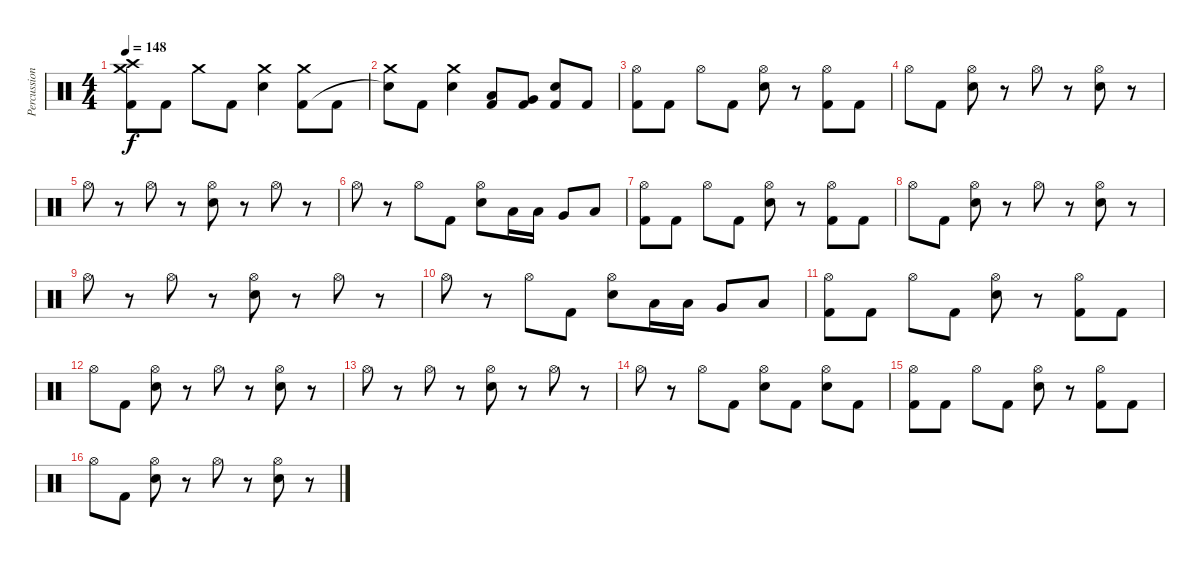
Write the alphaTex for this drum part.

\track ("Percussion" "Percussion") {instrument percussion}
\staff {score}
\articulation defaults
\ts (4 4)
\tempo 148
\clef neutral
\ks c
("Crash medium (hit)" "Crash high (hit)" "Kick (hit) 2").8{dy f} "Kick (hit) 2".8 "Crash medium (hit)".8 "Kick (hit) 2".8 ("Crash medium (hit)" "Electric Snare (hit)").4 ("Crash medium (hit)" "Kick (hit) 2").8 "Kick (hit) 2".8 |
("Crash medium (hit)" "Snare (hit)"{t}).8 "Kick (hit) 2".8 ("Crash medium (hit)" "Electric Snare (hit)").4 ("Low Tom (hit)" "Kick (hit) 2").8 ("Very Low Tom (hit)" "Kick (hit) 2").8 ("Electric Snare (hit)" "Kick (hit) 2").8 "Kick (hit) 2".8 |
("Hi-Hat (open)" "Kick (hit) 2").8 "Kick (hit) 2".8 "Hi-Hat (open)".8 "Kick (hit) 2".8 ("Hi-Hat (open)" "Electric Snare (hit)").8 r.8 ("Hi-Hat (open)" "Kick (hit) 2").8 "Kick (hit) 2".8 |
"Hi-Hat (open)".8 "Kick (hit) 2".8 ("Hi-Hat (open)" "Electric Snare (hit)").8 r.8 "Hi-Hat (open)".8 r.8 ("Hi-Hat (open)" "Electric Snare (hit)").8 r.8 |
"Hi-Hat (open)".8 r.8 "Hi-Hat (open)".8 r.8 ("Hi-Hat (open)" "Electric Snare (hit)").8 r.8 "Hi-Hat (open)".8 r.8 |
"Hi-Hat (open)".8 r.8 "Hi-Hat (open)".8 "Kick (hit) 2".8 ("Hi-Hat (open)" "Electric Snare (hit)").8 "Low Tom (hit)".16 "Low Tom (hit)".16 "Very Low Tom (hit)".8 "Low Floor Tom (hit)".8 |
("Hi-Hat (open)" "Kick (hit) 2").8 "Kick (hit) 2".8 "Hi-Hat (open)".8 "Kick (hit) 2".8 ("Hi-Hat (open)" "Electric Snare (hit)").8 r.8 ("Hi-Hat (open)" "Kick (hit) 2").8 "Kick (hit) 2".8 |
"Hi-Hat (open)".8 "Kick (hit) 2".8 ("Hi-Hat (open)" "Electric Snare (hit)").8 r.8 "Hi-Hat (open)".8 r.8 ("Hi-Hat (open)" "Electric Snare (hit)").8 r.8 |
"Hi-Hat (open)".8 r.8 "Hi-Hat (open)".8 r.8 ("Hi-Hat (open)" "Electric Snare (hit)").8 r.8 "Hi-Hat (open)".8 r.8 |
"Hi-Hat (open)".8 r.8 "Hi-Hat (open)".8 "Kick (hit) 2".8 ("Hi-Hat (open)" "Electric Snare (hit)").8 "Low Tom (hit)".16 "Low Tom (hit)".16 "Very Low Tom (hit)".8 "Low Floor Tom (hit)".8 |
("Hi-Hat (open)" "Kick (hit) 2").8 "Kick (hit) 2".8 "Hi-Hat (open)".8 "Kick (hit) 2".8 ("Hi-Hat (open)" "Electric Snare (hit)").8 r.8 ("Hi-Hat (open)" "Kick (hit) 2").8 "Kick (hit) 2".8 |
"Hi-Hat (open)".8 "Kick (hit) 2".8 ("Hi-Hat (open)" "Electric Snare (hit)").8 r.8 "Hi-Hat (open)".8 r.8 ("Hi-Hat (open)" "Electric Snare (hit)").8 r.8 |
"Hi-Hat (open)".8 r.8 "Hi-Hat (open)".8 r.8 ("Hi-Hat (open)" "Electric Snare (hit)").8 r.8 "Hi-Hat (open)".8 r.8 |
"Hi-Hat (open)".8 r.8 "Hi-Hat (open)".8 "Kick (hit) 2".8 ("Hi-Hat (open)" "Electric Snare (hit)").8 "Kick (hit) 2".8 ("Hi-Hat (open)" "Electric Snare (hit)").8 "Kick (hit) 2".8 |
("Hi-Hat (open)" "Kick (hit) 2").8 "Kick (hit) 2".8 "Hi-Hat (open)".8 "Kick (hit) 2".8 ("Hi-Hat (open)" "Electric Snare (hit)").8 r.8 ("Hi-Hat (open)" "Kick (hit) 2").8 "Kick (hit) 2".8 |
"Hi-Hat (open)".8 "Kick (hit) 2".8 ("Hi-Hat (open)" "Electric Snare (hit)").8 r.8 "Hi-Hat (open)".8 r.8 ("Hi-Hat (open)" "Electric Snare (hit)").8 r.8
